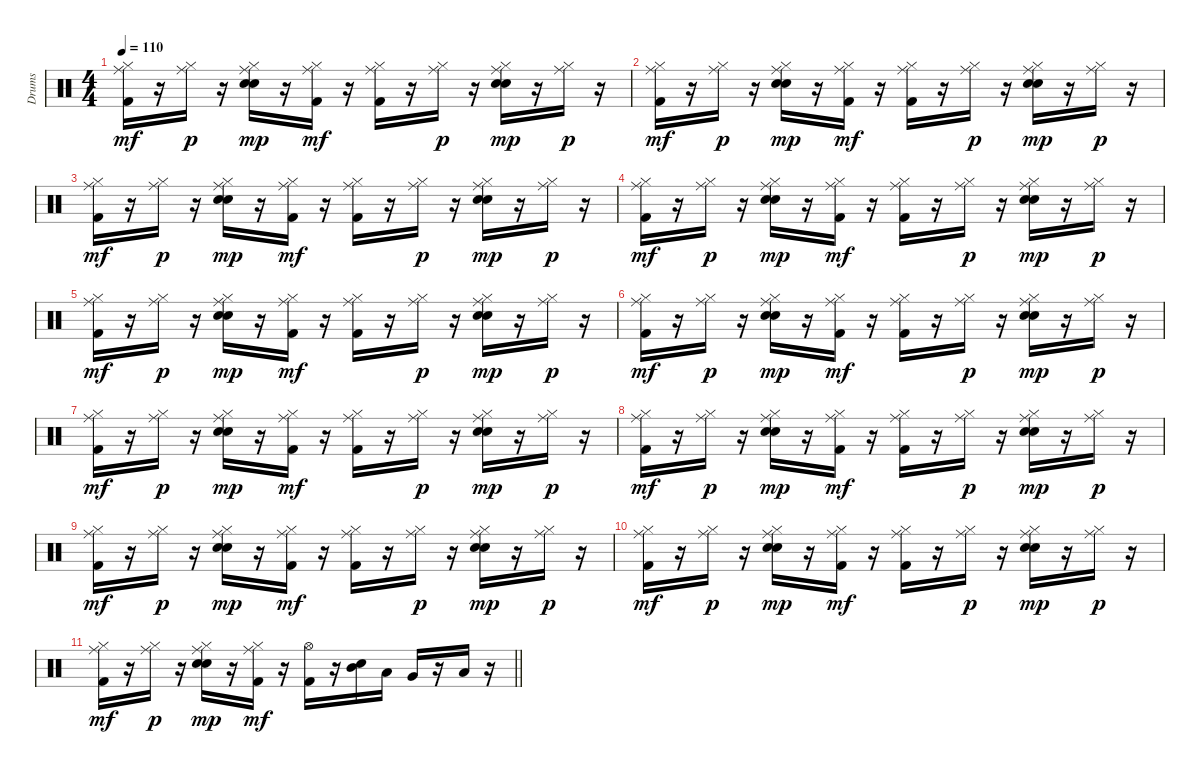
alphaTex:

\track ("Drums" "Drums") {instrument percussion}
\staff {score}
\articulation defaults
\ts (4 4)
\tempo 110
\clef neutral
\ks c
("Ride (middle)" "Hi-Hat (closed)" "Kick (hit) 2").16{dy mf} r.16 ("Ride (middle)" "Hi-Hat (closed)").16{dy p} r.16 ("Ride (middle)" "Hi-Hat (closed)" "Electric Snare (hit)" "Snare (hit) 2").16{dy mp} r.16 ("Ride (middle)" "Hi-Hat (closed)" "Kick (hit) 2").16{dy mf} r.16 ("Ride (middle)" "Hi-Hat (closed)" "Kick (hit) 2").16 r.16 ("Ride (middle)" "Hi-Hat (closed)").16{dy p} r.16 ("Ride (middle)" "Hi-Hat (closed)" "Electric Snare (hit)" "Snare (hit) 2").16{dy mp} r.16 ("Ride (middle)" "Hi-Hat (closed)").16{dy p} r.16 |
("Ride (middle)" "Hi-Hat (closed)" "Kick (hit) 2").16{dy mf} r.16 ("Ride (middle)" "Hi-Hat (closed)").16{dy p} r.16 ("Ride (middle)" "Hi-Hat (closed)" "Electric Snare (hit)" "Snare (hit) 2").16{dy mp} r.16 ("Ride (middle)" "Hi-Hat (closed)" "Kick (hit) 2").16{dy mf} r.16 ("Ride (middle)" "Hi-Hat (closed)" "Kick (hit) 2").16 r.16 ("Ride (middle)" "Hi-Hat (closed)").16{dy p} r.16 ("Ride (middle)" "Hi-Hat (closed)" "Electric Snare (hit)" "Snare (hit) 2").16{dy mp} r.16 ("Ride (middle)" "Hi-Hat (closed)").16{dy p} r.16 |
("Ride (middle)" "Hi-Hat (closed)" "Kick (hit) 2").16{dy mf} r.16 ("Ride (middle)" "Hi-Hat (closed)").16{dy p} r.16 ("Ride (middle)" "Hi-Hat (closed)" "Electric Snare (hit)" "Snare (hit) 2").16{dy mp} r.16 ("Ride (middle)" "Hi-Hat (closed)" "Kick (hit) 2").16{dy mf} r.16 ("Ride (middle)" "Hi-Hat (closed)" "Kick (hit) 2").16 r.16 ("Ride (middle)" "Hi-Hat (closed)").16{dy p} r.16 ("Ride (middle)" "Hi-Hat (closed)" "Electric Snare (hit)" "Snare (hit) 2").16{dy mp} r.16 ("Ride (middle)" "Hi-Hat (closed)").16{dy p} r.16 |
("Ride (middle)" "Hi-Hat (closed)" "Kick (hit) 2").16{dy mf} r.16 ("Ride (middle)" "Hi-Hat (closed)").16{dy p} r.16 ("Ride (middle)" "Hi-Hat (closed)" "Electric Snare (hit)" "Snare (hit) 2").16{dy mp} r.16 ("Ride (middle)" "Hi-Hat (closed)" "Kick (hit) 2").16{dy mf} r.16 ("Ride (middle)" "Hi-Hat (closed)" "Kick (hit) 2").16 r.16 ("Ride (middle)" "Hi-Hat (closed)").16{dy p} r.16 ("Ride (middle)" "Hi-Hat (closed)" "Electric Snare (hit)" "Snare (hit) 2").16{dy mp} r.16 ("Ride (middle)" "Hi-Hat (closed)").16{dy p} r.16 |
("Ride (middle)" "Hi-Hat (closed)" "Kick (hit) 2").16{dy mf} r.16 ("Ride (middle)" "Hi-Hat (closed)").16{dy p} r.16 ("Ride (middle)" "Hi-Hat (closed)" "Electric Snare (hit)" "Snare (hit) 2").16{dy mp} r.16 ("Ride (middle)" "Hi-Hat (closed)" "Kick (hit) 2").16{dy mf} r.16 ("Ride (middle)" "Hi-Hat (closed)" "Kick (hit) 2").16 r.16 ("Ride (middle)" "Hi-Hat (closed)").16{dy p} r.16 ("Ride (middle)" "Hi-Hat (closed)" "Electric Snare (hit)" "Snare (hit) 2").16{dy mp} r.16 ("Ride (middle)" "Hi-Hat (closed)").16{dy p} r.16 |
("Ride (middle)" "Hi-Hat (closed)" "Kick (hit) 2").16{dy mf} r.16 ("Ride (middle)" "Hi-Hat (closed)").16{dy p} r.16 ("Ride (middle)" "Hi-Hat (closed)" "Electric Snare (hit)" "Snare (hit) 2").16{dy mp} r.16 ("Ride (middle)" "Hi-Hat (closed)" "Kick (hit) 2").16{dy mf} r.16 ("Ride (middle)" "Hi-Hat (closed)" "Kick (hit) 2").16 r.16 ("Ride (middle)" "Hi-Hat (closed)").16{dy p} r.16 ("Ride (middle)" "Hi-Hat (closed)" "Electric Snare (hit)" "Snare (hit) 2").16{dy mp} r.16 ("Ride (middle)" "Hi-Hat (closed)").16{dy p} r.16 |
("Ride (middle)" "Hi-Hat (closed)" "Kick (hit) 2").16{dy mf} r.16 ("Ride (middle)" "Hi-Hat (closed)").16{dy p} r.16 ("Ride (middle)" "Hi-Hat (closed)" "Electric Snare (hit)" "Snare (hit) 2").16{dy mp} r.16 ("Ride (middle)" "Hi-Hat (closed)" "Kick (hit) 2").16{dy mf} r.16 ("Ride (middle)" "Hi-Hat (closed)" "Kick (hit) 2").16 r.16 ("Ride (middle)" "Hi-Hat (closed)").16{dy p} r.16 ("Ride (middle)" "Hi-Hat (closed)" "Electric Snare (hit)" "Snare (hit) 2").16{dy mp} r.16 ("Ride (middle)" "Hi-Hat (closed)").16{dy p} r.16 |
("Ride (middle)" "Hi-Hat (closed)" "Kick (hit) 2").16{dy mf} r.16 ("Ride (middle)" "Hi-Hat (closed)").16{dy p} r.16 ("Ride (middle)" "Hi-Hat (closed)" "Electric Snare (hit)" "Snare (hit) 2").16{dy mp} r.16 ("Ride (middle)" "Hi-Hat (closed)" "Kick (hit) 2").16{dy mf} r.16 ("Ride (middle)" "Hi-Hat (closed)" "Kick (hit) 2").16 r.16 ("Ride (middle)" "Hi-Hat (closed)").16{dy p} r.16 ("Ride (middle)" "Hi-Hat (closed)" "Electric Snare (hit)" "Snare (hit) 2").16{dy mp} r.16 ("Ride (middle)" "Hi-Hat (closed)").16{dy p} r.16 |
("Ride (middle)" "Hi-Hat (closed)" "Kick (hit) 2").16{dy mf} r.16 ("Ride (middle)" "Hi-Hat (closed)").16{dy p} r.16 ("Ride (middle)" "Hi-Hat (closed)" "Electric Snare (hit)" "Snare (hit) 2").16{dy mp} r.16 ("Ride (middle)" "Hi-Hat (closed)" "Kick (hit) 2").16{dy mf} r.16 ("Ride (middle)" "Hi-Hat (closed)" "Kick (hit) 2").16 r.16 ("Ride (middle)" "Hi-Hat (closed)").16{dy p} r.16 ("Ride (middle)" "Hi-Hat (closed)" "Electric Snare (hit)" "Snare (hit) 2").16{dy mp} r.16 ("Ride (middle)" "Hi-Hat (closed)").16{dy p} r.16 |
("Ride (middle)" "Hi-Hat (closed)" "Kick (hit) 2").16{dy mf} r.16 ("Ride (middle)" "Hi-Hat (closed)").16{dy p} r.16 ("Ride (middle)" "Hi-Hat (closed)" "Electric Snare (hit)" "Snare (hit) 2").16{dy mp} r.16 ("Ride (middle)" "Hi-Hat (closed)" "Kick (hit) 2").16{dy mf} r.16 ("Ride (middle)" "Hi-Hat (closed)" "Kick (hit) 2").16 r.16 ("Ride (middle)" "Hi-Hat (closed)").16{dy p} r.16 ("Ride (middle)" "Hi-Hat (closed)" "Electric Snare (hit)" "Snare (hit) 2").16{dy mp} r.16 ("Ride (middle)" "Hi-Hat (closed)").16{dy p} r.16 |
\barLineRight lightlight
("Ride (middle)" "Hi-Hat (closed)" "Kick (hit) 2").16{dy mf} r.16 ("Ride (middle)" "Hi-Hat (closed)").16{dy p} r.16 ("Ride (middle)" "Hi-Hat (closed)" "Electric Snare (hit)" "Snare (hit) 2").16{dy mp} r.16 ("Ride (middle)" "Hi-Hat (closed)" "Kick (hit) 2").16{dy mf} r.16 ("Hi-Hat (open)" "Kick (hit) 2").16 r.16 ("Electric Snare (hit)" "Mid Tom (hit)").16 "Low Tom (hit)".16 "Very Low Tom (hit)".16 r.16 "Low Floor Tom (hit)".16 r.16
